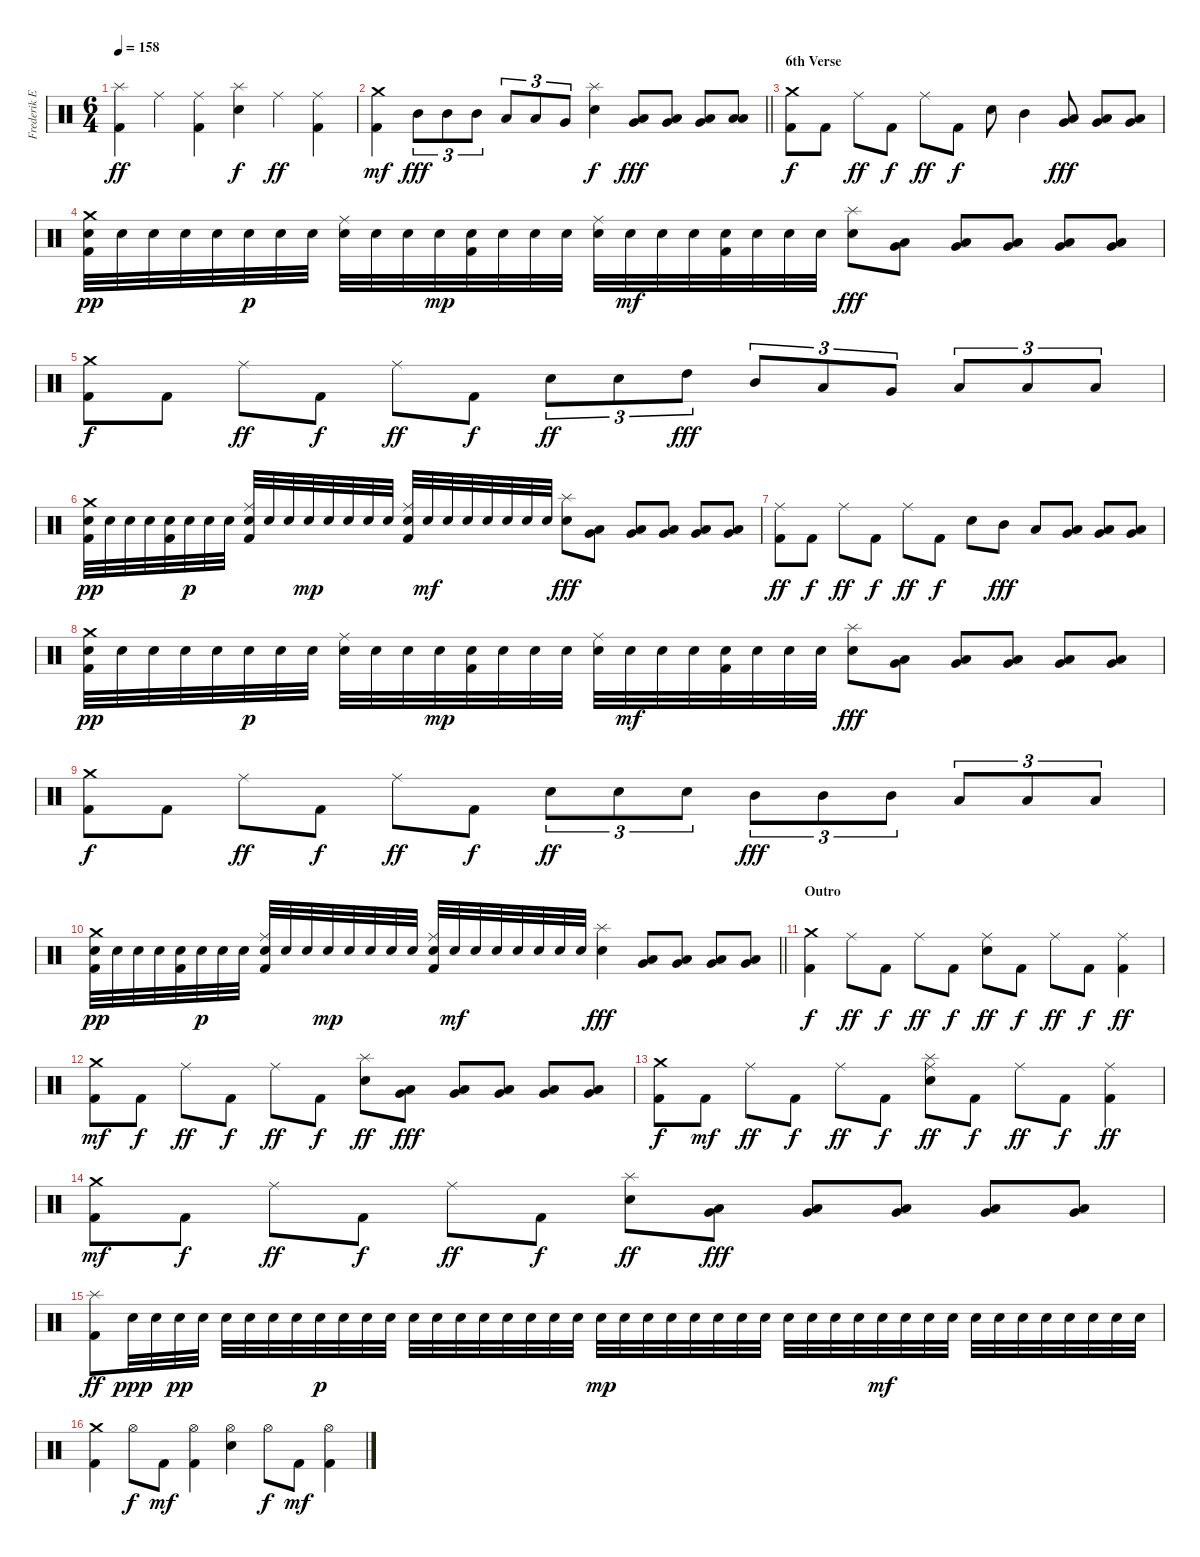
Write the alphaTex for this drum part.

\track ("Frederik Ehmke" "Frederik E") {instrument percussion}
\staff {score}
\articulation defaults
\ts (6 4)
\tempo 158
\clef neutral
\ks c
("Splash (hit)" "Kick (hit) 2").4{dy ff} "Ride (middle)".4 ("Ride (middle)" "Kick (hit) 2").4 ("Splash (hit)" "Electric Snare (hit)").4{dy f} "Ride (middle)".4{dy ff} ("Ride (middle)" "Kick (hit) 2").4 |
\barLineRight lightlight
("Crash medium (hit)" "Kick (hit) 2").4{dy mf} "Mid Tom (hit)".8{tu (3 2) dy fff} "Mid Tom (hit)".8{tu (3 2)} "Mid Tom (hit)".8{tu (3 2)} "Low Tom (hit)".8{tu (3 2)} "Low Tom (hit)".8{tu (3 2)} "Very Low Tom (hit)".8{tu (3 2)} ("Splash (hit)" "Electric Snare (hit)").4{dy f} ("Low Tom (hit)" "Very Low Tom (hit)").8{dy fff} ("Low Tom (hit)" "Very Low Tom (hit)").8 ("Very Low Tom (hit)" "Low Floor Tom (hit)").8 ("Low Floor Tom (hit)" "Low Floor Tom (hit)").8 |
\section ("" "6th Verse")
("Crash medium (hit)" "Kick (hit) 2").8{dy f} "Kick (hit) 2".8 "Ride (middle)".8{dy ff} "Kick (hit) 2".8{dy f} "Ride (middle)".8{dy ff} "Kick (hit) 2".8{dy f} "Electric Snare (hit)".8 "Mid Tom (hit)".4 ("Low Tom (hit)" "Very Low Tom (hit)").8{dy fff} ("Low Tom (hit)" "Very Low Tom (hit)").8 ("Low Tom (hit)" "Very Low Tom (hit)").8 |
("Crash medium (hit)" "Electric Snare (hit)" "Kick (hit) 2").32{dy pp} "Electric Snare (hit)".32 "Electric Snare (hit)".32 "Electric Snare (hit)".32 "Electric Snare (hit)".32 "Electric Snare (hit)".32{dy p} "Electric Snare (hit)".32 "Electric Snare (hit)".32 ("Ride (middle)" "Electric Snare (hit)").32 "Electric Snare (hit)".32 "Electric Snare (hit)".32 "Electric Snare (hit)".32{dy mp} ("Electric Snare (hit)" "Kick (hit) 2").32 "Electric Snare (hit)".32 "Electric Snare (hit)".32 "Electric Snare (hit)".32 ("Ride (middle)" "Electric Snare (hit)").32 "Electric Snare (hit)".32{dy mf} "Electric Snare (hit)".32 "Electric Snare (hit)".32 ("Electric Snare (hit)" "Kick (hit) 2").32 "Electric Snare (hit)".32 "Electric Snare (hit)".32 "Electric Snare (hit)".32 ("Splash (hit)" "Electric Snare (hit)").8{dy fff} ("Low Tom (hit)" "Very Low Tom (hit)").8 ("Low Tom (hit)" "Very Low Tom (hit)").8 ("Very Low Tom (hit)" "Low Floor Tom (hit)").8 ("Very Low Tom (hit)" "Low Floor Tom (hit)").8 ("Very Low Tom (hit)" "Low Floor Tom (hit)").8 |
("Crash medium (hit)" "Kick (hit) 2").8{dy f} "Kick (hit) 2".8 "Ride (middle)".8{dy ff} "Kick (hit) 2".8{dy f} "Ride (middle)".8{dy ff} "Kick (hit) 2".8{dy f} "Electric Snare (hit)".8{tu (3 2) dy ff} "Electric Snare (hit)".8{tu (3 2)} "High Tom (hit)".8{tu (3 2) dy fff} "Mid Tom (hit)".8{tu (3 2)} "Low Tom (hit)".8{tu (3 2)} "Very Low Tom (hit)".8{tu (3 2)} "Low Floor Tom (hit)".8{tu (3 2)} "Low Floor Tom (hit)".8{tu (3 2)} "Low Floor Tom (hit)".8{tu (3 2)} |
("Crash medium (hit)" "Electric Snare (hit)" "Kick (hit) 2").32{dy pp} "Electric Snare (hit)".32 "Electric Snare (hit)".32 "Electric Snare (hit)".32 ("Electric Snare (hit)" "Kick (hit) 2").32 "Electric Snare (hit)".32{dy p} "Electric Snare (hit)".32 "Electric Snare (hit)".32 ("Ride (middle)" "Electric Snare (hit)" "Kick (hit) 2").32 "Electric Snare (hit)".32 "Electric Snare (hit)".32 "Electric Snare (hit)".32{dy mp} "Electric Snare (hit)".32 "Electric Snare (hit)".32 "Electric Snare (hit)".32 "Electric Snare (hit)".32 ("Ride (middle)" "Electric Snare (hit)" "Kick (hit) 2").32 "Electric Snare (hit)".32{dy mf} "Electric Snare (hit)".32 "Electric Snare (hit)".32 "Electric Snare (hit)".32 "Electric Snare (hit)".32 "Electric Snare (hit)".32 "Electric Snare (hit)".32 ("Splash (hit)" "Electric Snare (hit)").8{dy fff} ("Low Tom (hit)" "Very Low Tom (hit)").8 ("Low Tom (hit)" "Very Low Tom (hit)").8 ("Very Low Tom (hit)" "Low Floor Tom (hit)").8 ("Very Low Tom (hit)" "Low Floor Tom (hit)").8 ("Very Low Tom (hit)" "Low Floor Tom (hit)").8 |
("Ride (middle)" "Kick (hit) 2").8{dy ff} "Kick (hit) 2".8{dy f} "Ride (middle)".8{dy ff} "Kick (hit) 2".8{dy f} "Ride (middle)".8{dy ff} "Kick (hit) 2".8{dy f} "Electric Snare (hit)".8 "Mid Tom (hit)".8{dy fff} "Low Tom (hit)".8 ("Low Tom (hit)" "Very Low Tom (hit)").8 ("Low Tom (hit)" "Very Low Tom (hit)").8 ("Low Tom (hit)" "Very Low Tom (hit)").8 |
("Crash medium (hit)" "Electric Snare (hit)" "Kick (hit) 2").32{dy pp} "Electric Snare (hit)".32 "Electric Snare (hit)".32 "Electric Snare (hit)".32 "Electric Snare (hit)".32 "Electric Snare (hit)".32{dy p} "Electric Snare (hit)".32 "Electric Snare (hit)".32 ("Ride (middle)" "Electric Snare (hit)").32 "Electric Snare (hit)".32 "Electric Snare (hit)".32 "Electric Snare (hit)".32{dy mp} ("Electric Snare (hit)" "Kick (hit) 2").32 "Electric Snare (hit)".32 "Electric Snare (hit)".32 "Electric Snare (hit)".32 ("Ride (middle)" "Electric Snare (hit)").32 "Electric Snare (hit)".32{dy mf} "Electric Snare (hit)".32 "Electric Snare (hit)".32 ("Electric Snare (hit)" "Kick (hit) 2").32 "Electric Snare (hit)".32 "Electric Snare (hit)".32 "Electric Snare (hit)".32 ("Splash (hit)" "Electric Snare (hit)").8{dy fff} ("Low Tom (hit)" "Very Low Tom (hit)").8 ("Low Tom (hit)" "Very Low Tom (hit)").8 ("Very Low Tom (hit)" "Low Floor Tom (hit)").8 ("Very Low Tom (hit)" "Low Floor Tom (hit)").8 ("Very Low Tom (hit)" "Low Floor Tom (hit)").8 |
("Crash medium (hit)" "Kick (hit) 2").8{dy f} "Kick (hit) 2".8 "Ride (middle)".8{dy ff} "Kick (hit) 2".8{dy f} "Ride (middle)".8{dy ff} "Kick (hit) 2".8{dy f} "Electric Snare (hit)".8{tu (3 2) dy ff} "Electric Snare (hit)".8{tu (3 2)} "Electric Snare (hit)".8{tu (3 2)} "Mid Tom (hit)".8{tu (3 2) dy fff} "Mid Tom (hit)".8{tu (3 2)} "Mid Tom (hit)".8{tu (3 2)} "Low Tom (hit)".8{tu (3 2)} "Low Tom (hit)".8{tu (3 2)} "Low Tom (hit)".8{tu (3 2)} |
\barLineRight lightlight
("Crash medium (hit)" "Electric Snare (hit)" "Kick (hit) 2").32{dy pp} "Electric Snare (hit)".32 "Electric Snare (hit)".32 "Electric Snare (hit)".32 ("Electric Snare (hit)" "Kick (hit) 2").32 "Electric Snare (hit)".32{dy p} "Electric Snare (hit)".32 "Electric Snare (hit)".32 ("Ride (middle)" "Electric Snare (hit)" "Kick (hit) 2").32 "Electric Snare (hit)".32 "Electric Snare (hit)".32 "Electric Snare (hit)".32{dy mp} "Electric Snare (hit)".32 "Electric Snare (hit)".32 "Electric Snare (hit)".32 "Electric Snare (hit)".32 ("Ride (middle)" "Electric Snare (hit)" "Kick (hit) 2").32 "Electric Snare (hit)".32{dy mf} "Electric Snare (hit)".32 "Electric Snare (hit)".32 "Electric Snare (hit)".32 "Electric Snare (hit)".32 "Electric Snare (hit)".32 "Electric Snare (hit)".32 ("Splash (hit)" "Electric Snare (hit)").4{dy fff} ("Low Tom (hit)" "Very Low Tom (hit)").8 ("Low Tom (hit)" "Very Low Tom (hit)").8 ("Very Low Tom (hit)" "Low Floor Tom (hit)").8 ("Very Low Tom (hit)" "Low Floor Tom (hit)").8 |
\section ("" "Outro")
("Crash medium (hit)" "Kick (hit) 2").4{dy f} "Ride (middle)".8{dy ff} "Kick (hit) 2".8{dy f} "Ride (middle)".8{dy ff} "Kick (hit) 2".8{dy f} ("Ride (middle)" "Electric Snare (hit)").8{dy ff} "Kick (hit) 2".8{dy f} "Ride (middle)".8{dy ff} "Kick (hit) 2".8{dy f} ("Ride (middle)" "Kick (hit) 2").4{dy ff} |
("Crash medium (hit)" "Kick (hit) 2").8{dy mf} "Kick (hit) 2".8{dy f} "Ride (middle)".8{dy ff} "Kick (hit) 2".8{dy f} "Ride (middle)".8{dy ff} "Kick (hit) 2".8{dy f} ("Splash (hit)" "Electric Snare (hit)").8{dy ff} ("Low Tom (hit)" "Very Low Tom (hit)").8{dy fff} ("Low Tom (hit)" "Very Low Tom (hit)").8 ("Very Low Tom (hit)" "Low Floor Tom (hit)").8 ("Very Low Tom (hit)" "Low Floor Tom (hit)").8 ("Very Low Tom (hit)" "Low Floor Tom (hit)").8 |
("Crash medium (hit)" "Kick (hit) 2").8{dy f} "Kick (hit) 2".8{dy mf} "Ride (middle)".8{dy ff} "Kick (hit) 2".8{dy f} "Ride (middle)".8{dy ff} "Kick (hit) 2".8{dy f} ("Ride (middle)" "Splash (hit)" "Electric Snare (hit)").8{dy ff} "Kick (hit) 2".8{dy f} "Ride (middle)".8{dy ff} "Kick (hit) 2".8{dy f} ("Ride (middle)" "Kick (hit) 2").4{dy ff} |
("Crash medium (hit)" "Kick (hit) 2").8{dy mf} "Kick (hit) 2".8{dy f} "Ride (middle)".8{dy ff} "Kick (hit) 2".8{dy f} "Ride (middle)".8{dy ff} "Kick (hit) 2".8{dy f} ("Splash (hit)" "Electric Snare (hit)").8{dy ff} ("Low Tom (hit)" "Very Low Tom (hit)").8{dy fff} ("Low Tom (hit)" "Very Low Tom (hit)").8 ("Very Low Tom (hit)" "Low Floor Tom (hit)").8 ("Very Low Tom (hit)" "Low Floor Tom (hit)").8 ("Very Low Tom (hit)" "Low Floor Tom (hit)").8 |
("Splash (hit)" "Kick (hit) 2").8{dy ff} "Electric Snare (hit)".32{dy ppp} "Electric Snare (hit)".32 "Electric Snare (hit)".32{dy pp} "Electric Snare (hit)".32 "Electric Snare (hit)".32 "Electric Snare (hit)".32 "Electric Snare (hit)".32 "Electric Snare (hit)".32 "Electric Snare (hit)".32{dy p} "Electric Snare (hit)".32 "Electric Snare (hit)".32 "Electric Snare (hit)".32 "Electric Snare (hit)".32 "Electric Snare (hit)".32 "Electric Snare (hit)".32 "Electric Snare (hit)".32 "Electric Snare (hit)".32 "Electric Snare (hit)".32 "Electric Snare (hit)".32 "Electric Snare (hit)".32 "Electric Snare (hit)".32{dy mp} "Electric Snare (hit)".32 "Electric Snare (hit)".32 "Electric Snare (hit)".32 "Electric Snare (hit)".32 "Electric Snare (hit)".32 "Electric Snare (hit)".32 "Electric Snare (hit)".32 "Electric Snare (hit)".32 "Electric Snare (hit)".32 "Electric Snare (hit)".32 "Electric Snare (hit)".32 "Electric Snare (hit)".32{dy mf} "Electric Snare (hit)".32 "Electric Snare (hit)".32 "Electric Snare (hit)".32 "Electric Snare (hit)".32 "Electric Snare (hit)".32 "Electric Snare (hit)".32 "Electric Snare (hit)".32 "Electric Snare (hit)".32 "Electric Snare (hit)".32 "Electric Snare (hit)".32 "Electric Snare (hit)".32 |
("Crash medium (hit)" "Kick (hit) 2").4 "Hi-Hat (open)".8{dy f} "Kick (hit) 2".8{dy mf} ("Hi-Hat (open)" "Kick (hit) 2").4 ("Hi-Hat (open)" "Electric Snare (hit)").4 "Hi-Hat (open)".8{dy f} "Kick (hit) 2".8{dy mf} ("Hi-Hat (open)" "Kick (hit) 2").4
